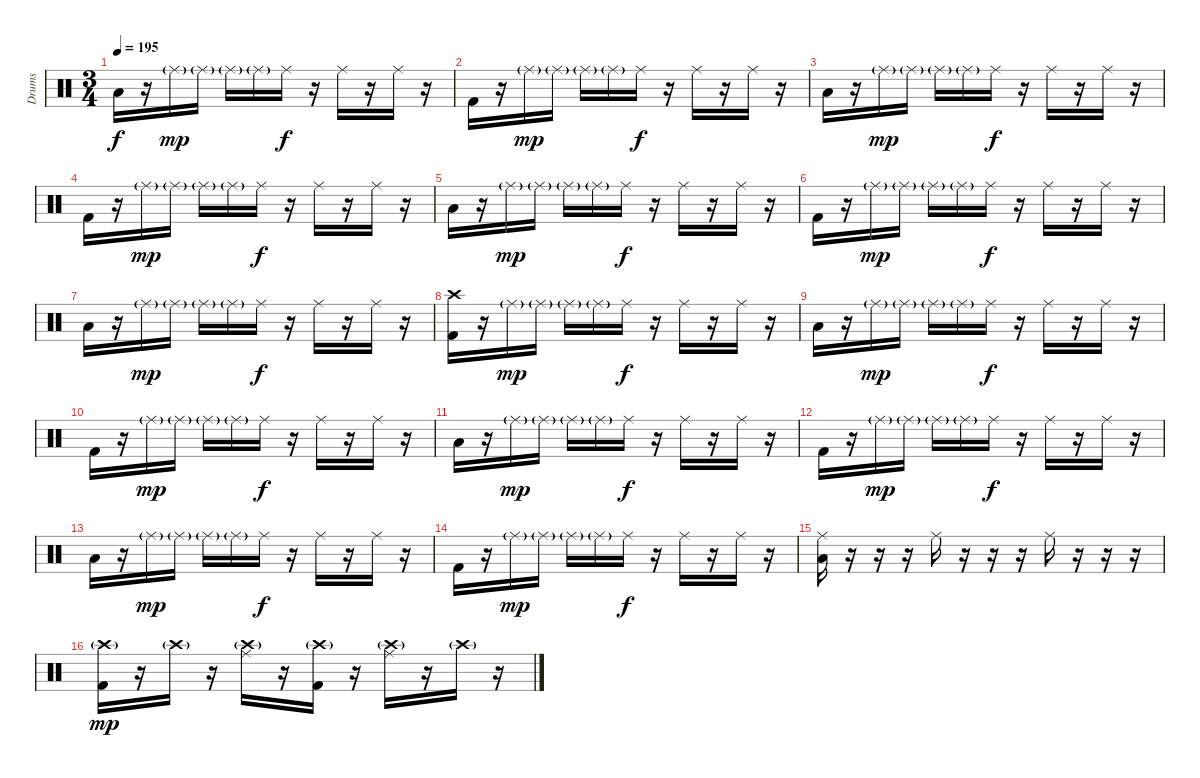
\track ("Drums" "Drums") {instrument percussion}
\staff {score}
\articulation defaults
\ts (3 4)
\tempo 195
\clef neutral
\ks c "Low Tom (hit)".16{dy f}
r.16 "Ride (middle)"{g}.16{dy mp} "Ride (middle)"{g}.16 "Ride (middle)"{g}.16 "Ride (middle)"{g}.16 "Ride (middle)".16{dy f} r.16 "Ride (middle)".16 r.16 "Ride (middle)".16 r.16 |
"Kick (hit) 2".16 r.16 "Ride (middle)"{g}.16{dy mp} "Ride (middle)"{g}.16 "Ride (middle)"{g}.16 "Ride (middle)"{g}.16 "Ride (middle)".16{dy f} r.16 "Ride (middle)".16 r.16 "Ride (middle)".16 r.16 |
"Low Tom (hit)".16 r.16 "Ride (middle)"{g}.16{dy mp} "Ride (middle)"{g}.16 "Ride (middle)"{g}.16 "Ride (middle)"{g}.16 "Ride (middle)".16{dy f} r.16 "Ride (middle)".16 r.16 "Ride (middle)".16 r.16 |
"Kick (hit) 2".16 r.16 "Ride (middle)"{g}.16{dy mp} "Ride (middle)"{g}.16 "Ride (middle)"{g}.16 "Ride (middle)"{g}.16 "Ride (middle)".16{dy f} r.16 "Ride (middle)".16 r.16 "Ride (middle)".16 r.16 |
"Low Tom (hit)".16 r.16 "Ride (middle)"{g}.16{dy mp} "Ride (middle)"{g}.16 "Ride (middle)"{g}.16 "Ride (middle)"{g}.16 "Ride (middle)".16{dy f} r.16 "Ride (middle)".16 r.16 "Ride (middle)".16 r.16 |
"Kick (hit) 2".16 r.16 "Ride (middle)"{g}.16{dy mp} "Ride (middle)"{g}.16 "Ride (middle)"{g}.16 "Ride (middle)"{g}.16 "Ride (middle)".16{dy f} r.16 "Ride (middle)".16 r.16 "Ride (middle)".16 r.16 |
"Low Tom (hit)".16 r.16 "Ride (middle)"{g}.16{dy mp} "Ride (middle)"{g}.16 "Ride (middle)"{g}.16 "Ride (middle)"{g}.16 "Ride (middle)".16{dy f} r.16 "Ride (middle)".16 r.16 "Ride (middle)".16 r.16 |
("Crash high (hit)" "Kick (hit) 2").16 r.16 "Ride (middle)"{g}.16{dy mp} "Ride (middle)"{g}.16 "Ride (middle)"{g}.16 "Ride (middle)"{g}.16 "Ride (middle)".16{dy f} r.16 "Ride (middle)".16 r.16 "Ride (middle)".16 r.16 |
"Low Tom (hit)".16 r.16 "Ride (middle)"{g}.16{dy mp} "Ride (middle)"{g}.16 "Ride (middle)"{g}.16 "Ride (middle)"{g}.16 "Ride (middle)".16{dy f} r.16 "Ride (middle)".16 r.16 "Ride (middle)".16 r.16 |
"Kick (hit) 2".16 r.16 "Ride (middle)"{g}.16{dy mp} "Ride (middle)"{g}.16 "Ride (middle)"{g}.16 "Ride (middle)"{g}.16 "Ride (middle)".16{dy f} r.16 "Ride (middle)".16 r.16 "Ride (middle)".16 r.16 |
"Low Tom (hit)".16 r.16 "Ride (middle)"{g}.16{dy mp} "Ride (middle)"{g}.16 "Ride (middle)"{g}.16 "Ride (middle)"{g}.16 "Ride (middle)".16{dy f} r.16 "Ride (middle)".16 r.16 "Ride (middle)".16 r.16 |
"Kick (hit) 2".16 r.16 "Ride (middle)"{g}.16{dy mp} "Ride (middle)"{g}.16 "Ride (middle)"{g}.16 "Ride (middle)"{g}.16 "Ride (middle)".16{dy f} r.16 "Ride (middle)".16 r.16 "Ride (middle)".16 r.16 |
"Low Tom (hit)".16 r.16 "Ride (middle)"{g}.16{dy mp} "Ride (middle)"{g}.16 "Ride (middle)"{g}.16 "Ride (middle)"{g}.16 "Ride (middle)".16{dy f} r.16 "Ride (middle)".16 r.16 "Ride (middle)".16 r.16 |
"Kick (hit) 2".16 r.16 "Ride (middle)"{g}.16{dy mp} "Ride (middle)"{g}.16 "Ride (middle)"{g}.16 "Ride (middle)"{g}.16 "Ride (middle)".16{dy f} r.16 "Ride (middle)".16 r.16 "Ride (middle)".16 r.16 |
("Ride (middle)" "Low Tom (hit)").16 r.16 r.16 r.16 "Ride (middle)".16 r.16 r.16 r.16 "Ride (middle)".16 r.16 r.16 r.16 |
("Crash high (hit)"{g} "Kick (hit) 2").16{dy mp} r.16 "Crash high (hit)"{g}.16 r.16 ("Crash high (hit)"{g} "Ride (middle)").16 r.16 ("Crash high (hit)"{g} "Kick (hit) 2").16 r.16 ("Crash high (hit)"{g} "Ride (middle)").16 r.16 "Crash high (hit)"{g}.16 r.16
